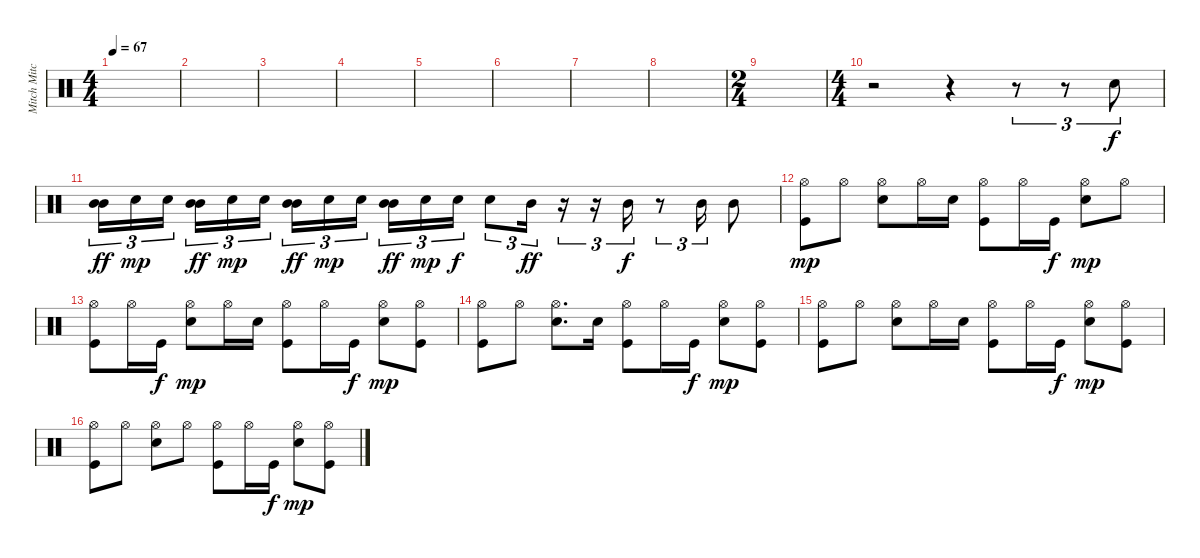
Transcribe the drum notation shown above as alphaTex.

\track ("Mitch Mitchell" "Mitch Mitc") {instrument percussion}
\staff {score}
\articulation defaults
\ts (4 4)
\tempo 67
\clef neutral
\ks c
|
|
|
|
|
|
|
|
\ts (2 4)
|
\ts (4 4)
r.2 r.4 r.8{tu (3 2)} r.8{tu (3 2)} "Electric Snare (hit)".8{tu (3 2)} |
("Mid Tom (hit)" "Mid Tom (hit)").16{tu (3 2) dy ff} "Electric Snare (hit)".16{tu (3 2) dy mp} "Electric Snare (hit)".16{tu (3 2) beam splitsecondary} ("Mid Tom (hit)" "Mid Tom (hit)").16{tu (3 2) dy ff} "Electric Snare (hit)".16{tu (3 2) dy mp} "Electric Snare (hit)".16{tu (3 2)} ("Mid Tom (hit)" "Mid Tom (hit)").16{tu (3 2) dy ff} "Electric Snare (hit)".16{tu (3 2) dy mp} "Electric Snare (hit)".16{tu (3 2) beam splitsecondary} ("Mid Tom (hit)" "Mid Tom (hit)").16{tu (3 2) dy ff} "Electric Snare (hit)".16{tu (3 2) dy mp} "Electric Snare (hit)".16{tu (3 2) dy f} "Electric Snare (hit)".8{tu (3 2)} "Mid Tom (hit)".16{tu (3 2) dy ff} r.16{tu (3 2)} r.16{tu (3 2)} "Mid Tom (hit)".16{tu (3 2) dy f} r.8{tu (3 2)} "Mid Tom (hit)".16{tu (3 2)} "Mid Tom (hit)".8 |
("Hi-Hat (open)" "Kick (hit)").8{dy mp} "Hi-Hat (open)".8 ("Hi-Hat (open)" "Electric Snare (hit)").8 "Hi-Hat (open)".16 "Electric Snare (hit)".16 ("Hi-Hat (open)" "Kick (hit)").8 "Hi-Hat (open)".16 "Kick (hit)".16{dy f} ("Hi-Hat (open)" "Electric Snare (hit)").8{dy mp} "Hi-Hat (open)".8 |
("Hi-Hat (open)" "Kick (hit)").8 "Hi-Hat (open)".16 "Kick (hit)".16{dy f} ("Hi-Hat (open)" "Electric Snare (hit)").8{dy mp} "Hi-Hat (open)".16 "Electric Snare (hit)".16 ("Hi-Hat (open)" "Kick (hit)").8 "Hi-Hat (open)".16 "Kick (hit)".16{dy f} ("Hi-Hat (open)" "Electric Snare (hit)").8{dy mp} ("Hi-Hat (open)" "Kick (hit)").8 |
("Hi-Hat (open)" "Kick (hit)").8 "Hi-Hat (open)".8 ("Hi-Hat (open)" "Electric Snare (hit)").8{d} "Electric Snare (hit)".16 ("Hi-Hat (open)" "Kick (hit)").8 "Hi-Hat (open)".16 "Kick (hit)".16{dy f} ("Hi-Hat (open)" "Electric Snare (hit)").8{dy mp} ("Hi-Hat (open)" "Kick (hit)").8 |
("Hi-Hat (open)" "Kick (hit)").8 "Hi-Hat (open)".8 ("Hi-Hat (open)" "Electric Snare (hit)").8 "Hi-Hat (open)".16 "Electric Snare (hit)".16 ("Hi-Hat (open)" "Kick (hit)").8 "Hi-Hat (open)".16 "Kick (hit)".16{dy f} ("Hi-Hat (open)" "Electric Snare (hit)").8{dy mp} ("Hi-Hat (open)" "Kick (hit)").8 |
("Hi-Hat (open)" "Kick (hit)").8 "Hi-Hat (open)".8 ("Hi-Hat (open)" "Electric Snare (hit)").8 "Hi-Hat (open)".8 ("Hi-Hat (open)" "Kick (hit)").8 "Hi-Hat (open)".16 "Kick (hit)".16{dy f} ("Hi-Hat (open)" "Electric Snare (hit)").8{dy mp} ("Hi-Hat (open)" "Kick (hit)").8
